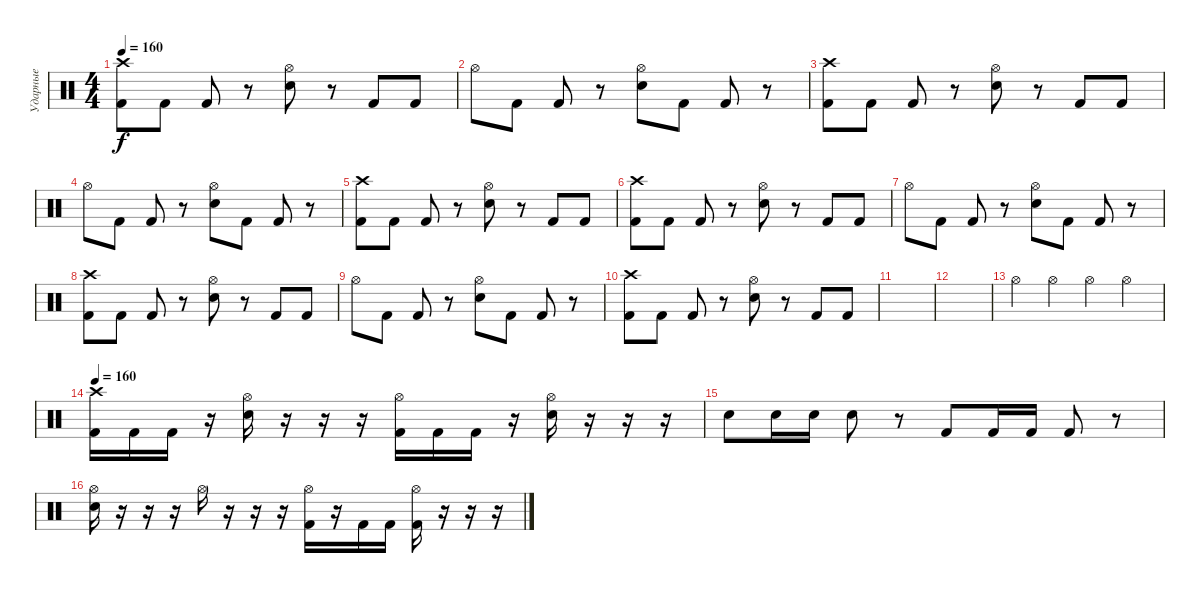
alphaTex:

\track ("Ударные" "Ударные") {instrument percussion}
\staff {score}
\articulation defaults
\ts (4 4)
\tempo 160
\clef neutral
\ks c
("Crash high (hit)" "Kick (hit) 2").8{dy f} "Kick (hit) 2".8 "Kick (hit) 2".8 r.8 ("Hi-Hat (open)" "Electric Snare (hit)").8 r.8 "Kick (hit) 2".8 "Kick (hit) 2".8 |
"Hi-Hat (open)".8 "Kick (hit) 2".8 "Kick (hit) 2".8 r.8 ("Hi-Hat (open)" "Electric Snare (hit)").8 "Kick (hit) 2".8 "Kick (hit) 2".8 r.8 |
("Crash high (hit)" "Kick (hit) 2").8 "Kick (hit) 2".8 "Kick (hit) 2".8 r.8 ("Hi-Hat (open)" "Electric Snare (hit)").8 r.8 "Kick (hit) 2".8 "Kick (hit) 2".8 |
"Hi-Hat (open)".8 "Kick (hit) 2".8 "Kick (hit) 2".8 r.8 ("Hi-Hat (open)" "Electric Snare (hit)").8 "Kick (hit) 2".8 "Kick (hit) 2".8 r.8 |
("Crash high (hit)" "Kick (hit) 2").8 "Kick (hit) 2".8 "Kick (hit) 2".8 r.8 ("Hi-Hat (open)" "Electric Snare (hit)").8 r.8 "Kick (hit) 2".8 "Kick (hit) 2".8 |
("Crash high (hit)" "Kick (hit) 2").8 "Kick (hit) 2".8 "Kick (hit) 2".8 r.8 ("Hi-Hat (open)" "Electric Snare (hit)").8 r.8 "Kick (hit) 2".8 "Kick (hit) 2".8 |
"Hi-Hat (open)".8 "Kick (hit) 2".8 "Kick (hit) 2".8 r.8 ("Hi-Hat (open)" "Electric Snare (hit)").8 "Kick (hit) 2".8 "Kick (hit) 2".8 r.8 |
("Crash high (hit)" "Kick (hit) 2").8 "Kick (hit) 2".8 "Kick (hit) 2".8 r.8 ("Hi-Hat (open)" "Electric Snare (hit)").8 r.8 "Kick (hit) 2".8 "Kick (hit) 2".8 |
"Hi-Hat (open)".8 "Kick (hit) 2".8 "Kick (hit) 2".8 r.8 ("Hi-Hat (open)" "Electric Snare (hit)").8 "Kick (hit) 2".8 "Kick (hit) 2".8 r.8 |
("Crash high (hit)" "Kick (hit) 2").8 "Kick (hit) 2".8 "Kick (hit) 2".8 r.8 ("Hi-Hat (open)" "Electric Snare (hit)").8 r.8 "Kick (hit) 2".8 "Kick (hit) 2".8 |
|
|
"Hi-Hat (open)".4 "Hi-Hat (open)".4 "Hi-Hat (open)".4 "Hi-Hat (open)".4 |
\tempo 160
("Crash high (hit)" "Kick (hit) 2").16 "Kick (hit) 2".16 "Kick (hit) 2".16 r.16 ("Hi-Hat (open)" "Electric Snare (hit)").16 r.16 r.16 r.16 ("Hi-Hat (open)" "Kick (hit) 2").16 "Kick (hit) 2".16 "Kick (hit) 2".16 r.16 ("Hi-Hat (open)" "Electric Snare (hit)").16 r.16 r.16 r.16 |
"Electric Snare (hit)".8 "Electric Snare (hit)".16 "Electric Snare (hit)".16 "Electric Snare (hit)".8 r.8 "Kick (hit) 2".8 "Kick (hit) 2".16 "Kick (hit) 2".16 "Kick (hit) 2".8 r.8 |
("Hi-Hat (open)" "Electric Snare (hit)").16 r.16 r.16 r.16 "Hi-Hat (open)".16 r.16 r.16 r.16 ("Hi-Hat (open)" "Kick (hit) 2").16 r.16 "Kick (hit) 2".16 "Kick (hit) 2".16 ("Hi-Hat (open)" "Kick (hit) 2").16 r.16 r.16 r.16
